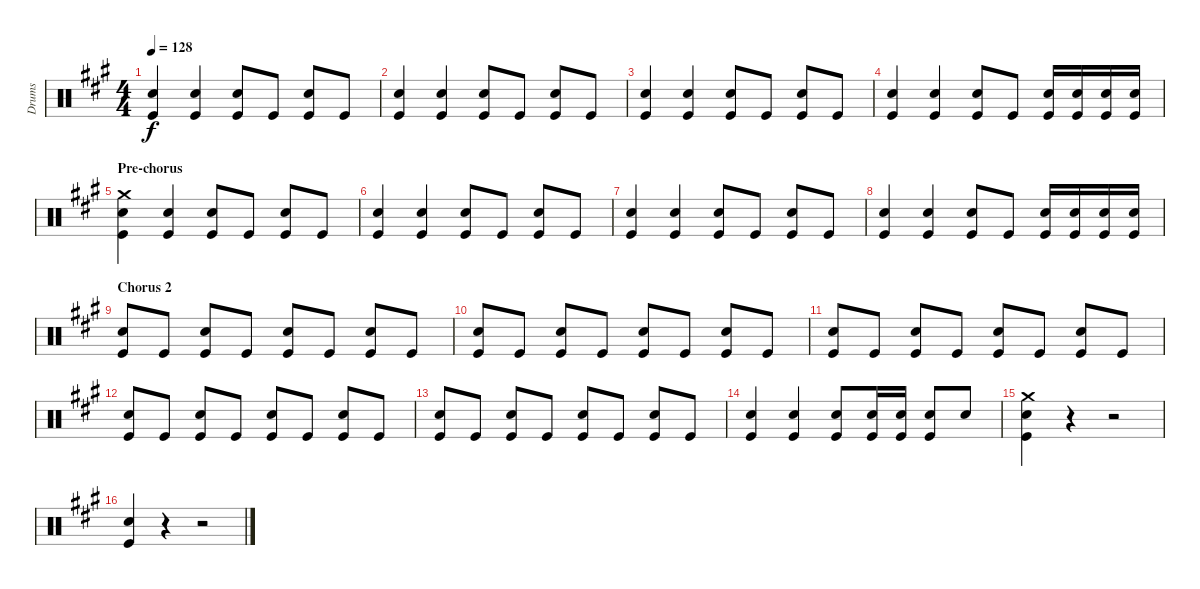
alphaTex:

\defaultSystemsLayout 4
\bracketExtendMode groupsimilarinstruments
\otherSystemsTrackNameOrientation horizontal
\track ("Drumkit" "Drums") {instrument percussion}
\staff {score}
\articulation defaults
\ts (4 4)
\tempo 128
\clef neutral
\ks a
("Snare (hit) 2" "Kick (hit)").4{dy f} ("Snare (hit) 2" "Kick (hit)").4 ("Snare (hit) 2" "Kick (hit)").8 "Kick (hit)".8 ("Snare (hit) 2" "Kick (hit)").8 "Kick (hit)".8 |
("Snare (hit) 2" "Kick (hit)").4 ("Snare (hit) 2" "Kick (hit)").4 ("Snare (hit) 2" "Kick (hit)").8 "Kick (hit)".8 ("Snare (hit) 2" "Kick (hit)").8 "Kick (hit)".8 |
("Snare (hit) 2" "Kick (hit)").4 ("Snare (hit) 2" "Kick (hit)").4 ("Snare (hit) 2" "Kick (hit)").8 "Kick (hit)".8 ("Snare (hit) 2" "Kick (hit)").8 "Kick (hit)".8 |
("Snare (hit) 2" "Kick (hit)").4 ("Snare (hit) 2" "Kick (hit)").4 ("Snare (hit) 2" "Kick (hit)").8 "Kick (hit)".8 ("Snare (hit) 2" "Kick (hit)").16 ("Snare (hit) 2" "Kick (hit)").16 ("Snare (hit) 2" "Kick (hit)").16 ("Snare (hit) 2" "Kick (hit)").16 |
\section ("" "Pre-chorus")
("Crash medium (hit)" "Snare (hit) 2" "Kick (hit)").4 ("Snare (hit) 2" "Kick (hit)").4 ("Snare (hit) 2" "Kick (hit)").8 "Kick (hit)".8 ("Snare (hit) 2" "Kick (hit)").8 "Kick (hit)".8 |
("Snare (hit) 2" "Kick (hit)").4 ("Snare (hit) 2" "Kick (hit)").4 ("Snare (hit) 2" "Kick (hit)").8 "Kick (hit)".8 ("Snare (hit) 2" "Kick (hit)").8 "Kick (hit)".8 |
("Snare (hit) 2" "Kick (hit)").4 ("Snare (hit) 2" "Kick (hit)").4 ("Snare (hit) 2" "Kick (hit)").8 "Kick (hit)".8 ("Snare (hit) 2" "Kick (hit)").8 "Kick (hit)".8 |
("Snare (hit) 2" "Kick (hit)").4 ("Snare (hit) 2" "Kick (hit)").4 ("Snare (hit) 2" "Kick (hit)").8 "Kick (hit)".8 ("Snare (hit) 2" "Kick (hit)").16 ("Snare (hit) 2" "Kick (hit)").16 ("Snare (hit) 2" "Kick (hit)").16 ("Snare (hit) 2" "Kick (hit)").16 |
\section ("" "Chorus 2")
("Snare (hit) 2" "Kick (hit)").8 "Kick (hit)".8 ("Snare (hit) 2" "Kick (hit)").8 "Kick (hit)".8 ("Snare (hit) 2" "Kick (hit)").8 "Kick (hit)".8 ("Snare (hit) 2" "Kick (hit)").8 "Kick (hit)".8 |
("Snare (hit) 2" "Kick (hit)").8 "Kick (hit)".8 ("Snare (hit) 2" "Kick (hit)").8 "Kick (hit)".8 ("Snare (hit) 2" "Kick (hit)").8 "Kick (hit)".8 ("Snare (hit) 2" "Kick (hit)").8 "Kick (hit)".8 |
("Snare (hit) 2" "Kick (hit)").8 "Kick (hit)".8 ("Snare (hit) 2" "Kick (hit)").8 "Kick (hit)".8 ("Snare (hit) 2" "Kick (hit)").8 "Kick (hit)".8 ("Snare (hit) 2" "Kick (hit)").8 "Kick (hit)".8 |
("Snare (hit) 2" "Kick (hit)").8 "Kick (hit)".8 ("Snare (hit) 2" "Kick (hit)").8 "Kick (hit)".8 ("Snare (hit) 2" "Kick (hit)").8 "Kick (hit)".8 ("Snare (hit) 2" "Kick (hit)").8 "Kick (hit)".8 |
("Snare (hit) 2" "Kick (hit)").8 "Kick (hit)".8 ("Snare (hit) 2" "Kick (hit)").8 "Kick (hit)".8 ("Snare (hit) 2" "Kick (hit)").8 "Kick (hit)".8 ("Snare (hit) 2" "Kick (hit)").8 "Kick (hit)".8 |
("Snare (hit) 2" "Kick (hit)").4 ("Snare (hit) 2" "Kick (hit)").4 ("Snare (hit) 2" "Kick (hit)").8 ("Snare (hit) 2" "Kick (hit)").16 ("Snare (hit) 2" "Kick (hit)").16 ("Snare (hit) 2" "Kick (hit)").8 "Snare (hit) 2".8 |
("Snare (hit) 2" "Kick (hit)" "Crash medium (hit)").4 r.4 r.2 |
("Snare (hit) 2" "Kick (hit)").4 r.4 r.2
